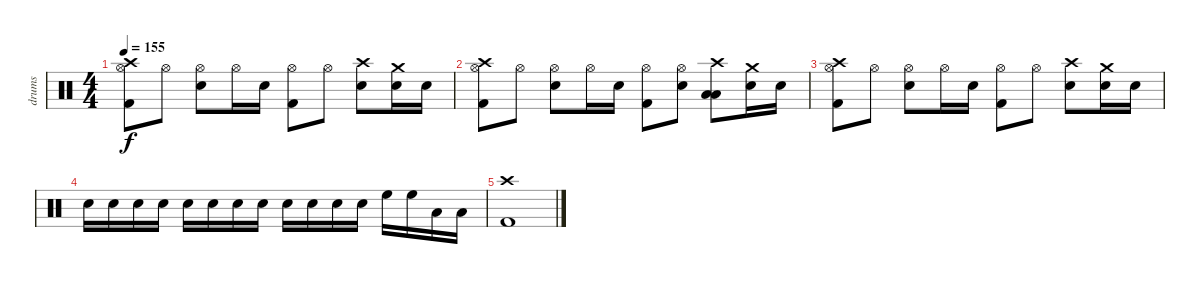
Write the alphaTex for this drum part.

\track ("drums" "drums") {instrument percussion}
\staff {score}
\articulation defaults
\ts (4 4)
\tempo 155
\clef neutral
\ks c
("Crash high (hit)" "Kick (hit) 2" "Hi-Hat (open)").8{dy f} "Hi-Hat (open)".8 ("Electric Snare (hit)" "Hi-Hat (open)").8 "Hi-Hat (open)".16 "Electric Snare (hit)".16 ("Kick (hit) 2" "Hi-Hat (open)").8 "Hi-Hat (open)".8 ("Electric Snare (hit)" "Crash high (hit)").8 ("Electric Snare (hit)" "Crash medium (hit)").16 "Electric Snare (hit)".16 |
("Crash high (hit)" "Kick (hit) 2" "Hi-Hat (open)").8 "Hi-Hat (open)".8 ("Electric Snare (hit)" "Hi-Hat (open)").8 "Hi-Hat (open)".16 "Electric Snare (hit)".16 ("Kick (hit) 2" "Hi-Hat (open)").8 ("Electric Snare (hit)" "Hi-Hat (open)").8 ("Low Floor Tom (hit)" "Low Tom (hit)" "Crash high (hit)").8 ("Electric Snare (hit)" "Crash medium (hit)").16 "Electric Snare (hit)".16 |
("Crash high (hit)" "Kick (hit) 2" "Hi-Hat (open)").8 "Hi-Hat (open)".8 ("Electric Snare (hit)" "Hi-Hat (open)").8 "Hi-Hat (open)".16 "Electric Snare (hit)".16 ("Kick (hit) 2" "Hi-Hat (open)").8 "Hi-Hat (open)".8 ("Electric Snare (hit)" "Crash high (hit)").8 ("Electric Snare (hit)" "Crash medium (hit)").16 "Electric Snare (hit)".16 |
"Electric Snare (hit)".16 "Electric Snare (hit)".16 "Electric Snare (hit)".16 "Electric Snare (hit)".16 "Electric Snare (hit)".16 "Electric Snare (hit)".16 "Electric Snare (hit)".16 "Electric Snare (hit)".16 "Electric Snare (hit)".16 "Electric Snare (hit)".16 "Electric Snare (hit)".16 "Electric Snare (hit)".16 "High Floor Tom (hit)".16 "High Floor Tom (hit)".16 "Low Tom (hit)".16 "Low Tom (hit)".16 |
("Crash high (hit)" "Kick (hit) 2").1
